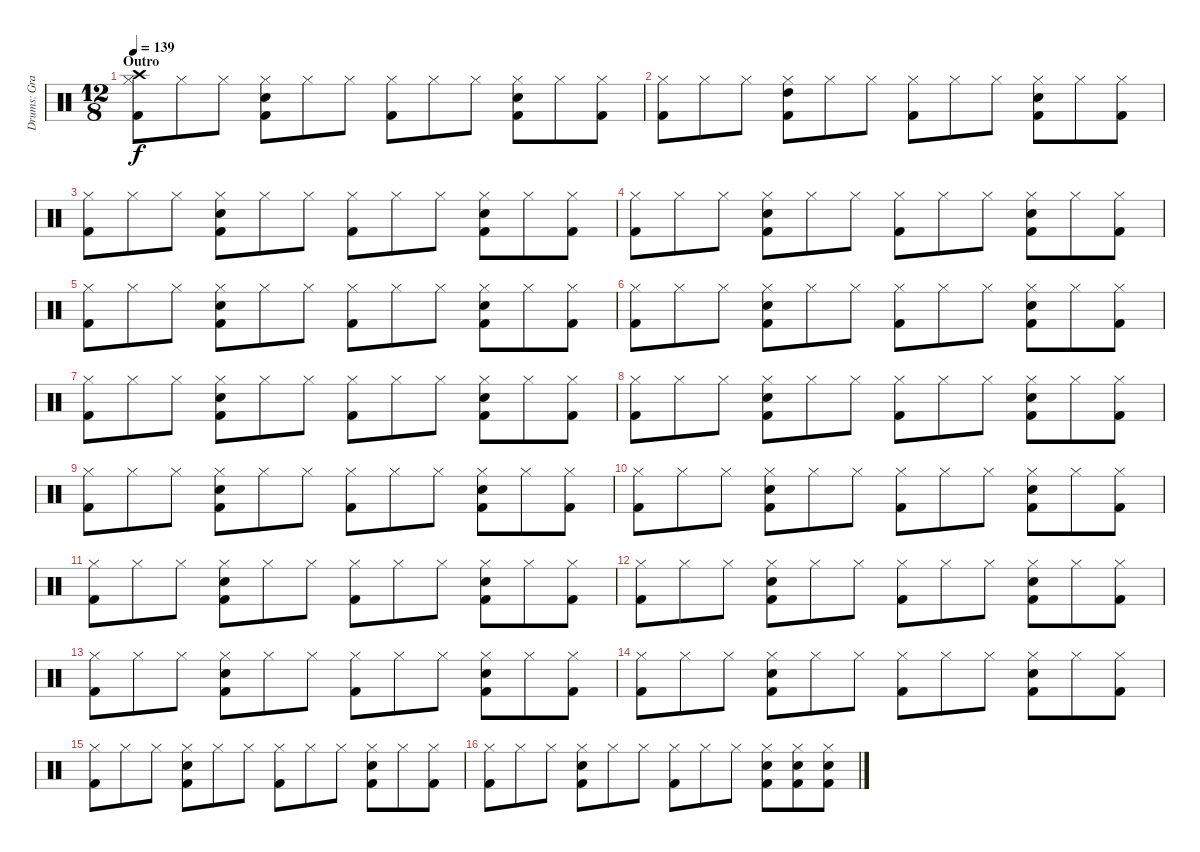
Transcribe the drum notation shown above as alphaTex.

\track ("Drums: Graeme Edge" "Drums: Gra") {instrument percussion}
\staff {score}
\articulation defaults
\ts (12 8)
\section ("" "Outro")
\tempo 139
\clef neutral
\ks c
("Crash high (hit)" "Hi-Hat (closed)" "Kick (hit) 2").8{dy f} "Hi-Hat (closed)".8 "Hi-Hat (closed)".8 ("Hi-Hat (closed)" "Snare (hit) 2" "Kick (hit) 2").8 "Hi-Hat (closed)".8 "Hi-Hat (closed)".8 ("Hi-Hat (closed)" "Kick (hit) 2").8 "Hi-Hat (closed)".8 "Hi-Hat (closed)".8 ("Hi-Hat (closed)" "Snare (hit) 2" "Kick (hit) 2").8 "Hi-Hat (closed)".8 ("Hi-Hat (closed)" "Kick (hit) 2").8 |
("Hi-Hat (closed)" "Kick (hit) 2").8 "Hi-Hat (closed)".8 "Hi-Hat (closed)".8 ("Hi-Hat (closed)" "High Tom (hit)" "Kick (hit) 2").8 "Hi-Hat (closed)".8 "Hi-Hat (closed)".8 ("Hi-Hat (closed)" "Kick (hit) 2").8 "Hi-Hat (closed)".8 "Hi-Hat (closed)".8 ("Hi-Hat (closed)" "Snare (hit) 2" "Kick (hit) 2").8 "Hi-Hat (closed)".8 ("Hi-Hat (closed)" "Kick (hit) 2").8 |
("Hi-Hat (closed)" "Kick (hit) 2").8 "Hi-Hat (closed)".8 "Hi-Hat (closed)".8 ("Hi-Hat (closed)" "Snare (hit) 2" "Kick (hit) 2").8 "Hi-Hat (closed)".8 "Hi-Hat (closed)".8 ("Hi-Hat (closed)" "Kick (hit) 2").8 "Hi-Hat (closed)".8 "Hi-Hat (closed)".8 ("Hi-Hat (closed)" "Snare (hit) 2" "Kick (hit) 2").8 "Hi-Hat (closed)".8 ("Hi-Hat (closed)" "Kick (hit) 2").8 |
("Hi-Hat (closed)" "Kick (hit) 2").8 "Hi-Hat (closed)".8 "Hi-Hat (closed)".8 ("Hi-Hat (closed)" "Snare (hit) 2" "Kick (hit) 2").8 "Hi-Hat (closed)".8 "Hi-Hat (closed)".8 ("Hi-Hat (closed)" "Kick (hit) 2").8 "Hi-Hat (closed)".8 "Hi-Hat (closed)".8 ("Hi-Hat (closed)" "Snare (hit) 2" "Kick (hit) 2").8 "Hi-Hat (closed)".8 ("Hi-Hat (closed)" "Kick (hit) 2").8 |
("Hi-Hat (closed)" "Kick (hit) 2").8 "Hi-Hat (closed)".8 "Hi-Hat (closed)".8 ("Hi-Hat (closed)" "Snare (hit) 2" "Kick (hit) 2").8 "Hi-Hat (closed)".8 "Hi-Hat (closed)".8 ("Hi-Hat (closed)" "Kick (hit) 2").8 "Hi-Hat (closed)".8 "Hi-Hat (closed)".8 ("Hi-Hat (closed)" "Snare (hit) 2" "Kick (hit) 2").8 "Hi-Hat (closed)".8 ("Hi-Hat (closed)" "Kick (hit) 2").8 |
("Hi-Hat (closed)" "Kick (hit) 2").8 "Hi-Hat (closed)".8 "Hi-Hat (closed)".8 ("Hi-Hat (closed)" "Snare (hit) 2" "Kick (hit) 2").8 "Hi-Hat (closed)".8 "Hi-Hat (closed)".8 ("Hi-Hat (closed)" "Kick (hit) 2").8 "Hi-Hat (closed)".8 "Hi-Hat (closed)".8 ("Hi-Hat (closed)" "Snare (hit) 2" "Kick (hit) 2").8 "Hi-Hat (closed)".8 ("Hi-Hat (closed)" "Kick (hit) 2").8 |
("Hi-Hat (closed)" "Kick (hit) 2").8 "Hi-Hat (closed)".8 "Hi-Hat (closed)".8 ("Hi-Hat (closed)" "Snare (hit) 2" "Kick (hit) 2").8 "Hi-Hat (closed)".8 "Hi-Hat (closed)".8 ("Hi-Hat (closed)" "Kick (hit) 2").8 "Hi-Hat (closed)".8 "Hi-Hat (closed)".8 ("Hi-Hat (closed)" "Snare (hit) 2" "Kick (hit) 2").8 "Hi-Hat (closed)".8 ("Hi-Hat (closed)" "Kick (hit) 2").8 |
("Hi-Hat (closed)" "Kick (hit) 2").8 "Hi-Hat (closed)".8 "Hi-Hat (closed)".8 ("Hi-Hat (closed)" "Snare (hit) 2" "Kick (hit) 2").8 "Hi-Hat (closed)".8 "Hi-Hat (closed)".8 ("Hi-Hat (closed)" "Kick (hit) 2").8 "Hi-Hat (closed)".8 "Hi-Hat (closed)".8 ("Hi-Hat (closed)" "Snare (hit) 2" "Kick (hit) 2").8 "Hi-Hat (closed)".8 ("Hi-Hat (closed)" "Kick (hit) 2").8 |
("Hi-Hat (closed)" "Kick (hit) 2").8 "Hi-Hat (closed)".8 "Hi-Hat (closed)".8 ("Hi-Hat (closed)" "Snare (hit) 2" "Kick (hit) 2").8 "Hi-Hat (closed)".8 "Hi-Hat (closed)".8 ("Hi-Hat (closed)" "Kick (hit) 2").8 "Hi-Hat (closed)".8 "Hi-Hat (closed)".8 ("Hi-Hat (closed)" "Snare (hit) 2" "Kick (hit) 2").8 "Hi-Hat (closed)".8 ("Hi-Hat (closed)" "Kick (hit) 2").8 |
("Hi-Hat (closed)" "Kick (hit) 2").8 "Hi-Hat (closed)".8 "Hi-Hat (closed)".8 ("Hi-Hat (closed)" "Snare (hit) 2" "Kick (hit) 2").8 "Hi-Hat (closed)".8 "Hi-Hat (closed)".8 ("Hi-Hat (closed)" "Kick (hit) 2").8 "Hi-Hat (closed)".8 "Hi-Hat (closed)".8 ("Hi-Hat (closed)" "Snare (hit) 2" "Kick (hit) 2").8 "Hi-Hat (closed)".8 ("Hi-Hat (closed)" "Kick (hit) 2").8 |
("Hi-Hat (closed)" "Kick (hit) 2").8 "Hi-Hat (closed)".8 "Hi-Hat (closed)".8 ("Hi-Hat (closed)" "Snare (hit) 2" "Kick (hit) 2").8 "Hi-Hat (closed)".8 "Hi-Hat (closed)".8 ("Hi-Hat (closed)" "Kick (hit) 2").8 "Hi-Hat (closed)".8 "Hi-Hat (closed)".8 ("Hi-Hat (closed)" "Snare (hit) 2" "Kick (hit) 2").8 "Hi-Hat (closed)".8 ("Hi-Hat (closed)" "Kick (hit) 2").8 |
("Hi-Hat (closed)" "Kick (hit) 2").8 "Hi-Hat (closed)".8 "Hi-Hat (closed)".8 ("Hi-Hat (closed)" "Snare (hit) 2" "Kick (hit) 2").8 "Hi-Hat (closed)".8 "Hi-Hat (closed)".8 ("Hi-Hat (closed)" "Kick (hit) 2").8 "Hi-Hat (closed)".8 "Hi-Hat (closed)".8 ("Hi-Hat (closed)" "Snare (hit) 2" "Kick (hit) 2").8 "Hi-Hat (closed)".8 ("Hi-Hat (closed)" "Kick (hit) 2").8 |
("Hi-Hat (closed)" "Kick (hit) 2").8 "Hi-Hat (closed)".8 "Hi-Hat (closed)".8 ("Hi-Hat (closed)" "Snare (hit) 2" "Kick (hit) 2").8 "Hi-Hat (closed)".8 "Hi-Hat (closed)".8 ("Hi-Hat (closed)" "Kick (hit) 2").8 "Hi-Hat (closed)".8 "Hi-Hat (closed)".8 ("Hi-Hat (closed)" "Snare (hit) 2" "Kick (hit) 2").8 "Hi-Hat (closed)".8 ("Hi-Hat (closed)" "Kick (hit) 2").8 |
("Hi-Hat (closed)" "Kick (hit) 2").8 "Hi-Hat (closed)".8 "Hi-Hat (closed)".8 ("Hi-Hat (closed)" "Snare (hit) 2" "Kick (hit) 2").8 "Hi-Hat (closed)".8 "Hi-Hat (closed)".8 ("Hi-Hat (closed)" "Kick (hit) 2").8 "Hi-Hat (closed)".8 "Hi-Hat (closed)".8 ("Hi-Hat (closed)" "Snare (hit) 2" "Kick (hit) 2").8 "Hi-Hat (closed)".8 ("Hi-Hat (closed)" "Kick (hit) 2").8 |
("Hi-Hat (closed)" "Kick (hit) 2").8 "Hi-Hat (closed)".8 "Hi-Hat (closed)".8 ("Hi-Hat (closed)" "Snare (hit) 2" "Kick (hit) 2").8 "Hi-Hat (closed)".8 "Hi-Hat (closed)".8 ("Hi-Hat (closed)" "Kick (hit) 2").8 "Hi-Hat (closed)".8 "Hi-Hat (closed)".8 ("Hi-Hat (closed)" "Snare (hit) 2" "Kick (hit) 2").8 "Hi-Hat (closed)".8 ("Hi-Hat (closed)" "Kick (hit) 2").8 |
("Hi-Hat (closed)" "Kick (hit) 2").8 "Hi-Hat (closed)".8 "Hi-Hat (closed)".8 ("Hi-Hat (closed)" "Snare (hit) 2" "Kick (hit) 2").8 "Hi-Hat (closed)".8 "Hi-Hat (closed)".8 ("Hi-Hat (closed)" "Kick (hit) 2").8 "Hi-Hat (closed)".8 "Hi-Hat (closed)".8 ("Hi-Hat (closed)" "Snare (hit) 2" "Kick (hit) 2").8 ("Hi-Hat (closed)" "Snare (hit) 2" "Kick (hit) 2").8 ("Hi-Hat (closed)" "Snare (hit) 2" "Kick (hit) 2").8
